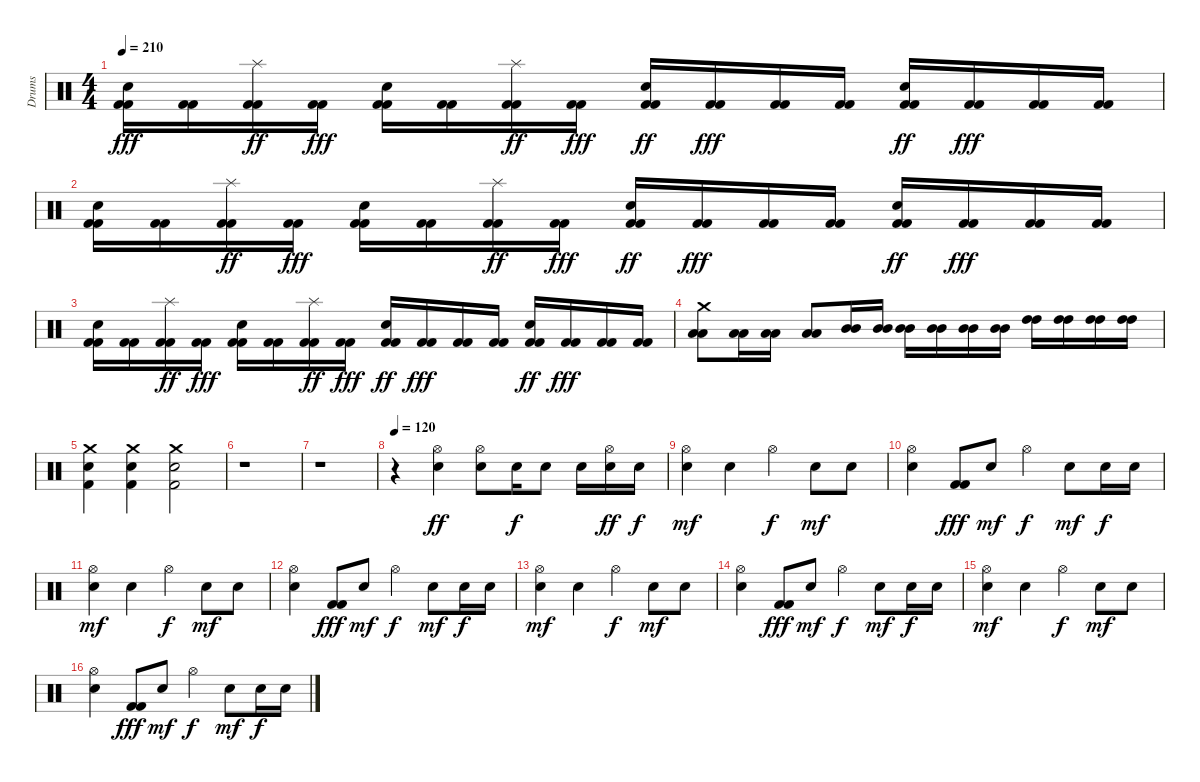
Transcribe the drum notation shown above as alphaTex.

\track ("Drums" "Drums") {instrument percussion}
\staff {score}
\articulation defaults
\ts (4 4)
\tempo 210
\clef neutral
\ks c
("Electric Snare (hit)" "Kick (hit) 2" "Kick (hit) 2").16{dy fff} ("Kick (hit) 2" "Kick (hit) 2").16 ("Splash (hit)" "Kick (hit) 2" "Kick (hit) 2").16{dy ff} ("Kick (hit) 2" "Kick (hit) 2").16{dy fff} ("Electric Snare (hit)" "Kick (hit) 2" "Kick (hit) 2").16 ("Kick (hit) 2" "Kick (hit) 2").16 ("Splash (hit)" "Kick (hit) 2" "Kick (hit) 2").16{dy ff} ("Kick (hit) 2" "Kick (hit) 2").16{dy fff} ("Snare (hit) 2" "Kick (hit) 2" "Kick (hit) 2").16{dy ff} ("Kick (hit) 2" "Kick (hit) 2").16{dy fff} ("Kick (hit) 2" "Kick (hit) 2").16 ("Kick (hit) 2" "Kick (hit) 2").16 ("Snare (hit) 2" "Kick (hit) 2" "Kick (hit) 2").16{dy ff} ("Kick (hit) 2" "Kick (hit) 2").16{dy fff} ("Kick (hit) 2" "Kick (hit) 2").16 ("Kick (hit) 2" "Kick (hit) 2").16 |
("Electric Snare (hit)" "Kick (hit) 2" "Kick (hit) 2").16 ("Kick (hit) 2" "Kick (hit) 2").16 ("Splash (hit)" "Kick (hit) 2" "Kick (hit) 2").16{dy ff} ("Kick (hit) 2" "Kick (hit) 2").16{dy fff} ("Electric Snare (hit)" "Kick (hit) 2" "Kick (hit) 2").16 ("Kick (hit) 2" "Kick (hit) 2").16 ("Splash (hit)" "Kick (hit) 2" "Kick (hit) 2").16{dy ff} ("Kick (hit) 2" "Kick (hit) 2").16{dy fff} ("Snare (hit) 2" "Kick (hit) 2" "Kick (hit) 2").16{dy ff} ("Kick (hit) 2" "Kick (hit) 2").16{dy fff} ("Kick (hit) 2" "Kick (hit) 2").16 ("Kick (hit) 2" "Kick (hit) 2").16 ("Snare (hit) 2" "Kick (hit) 2" "Kick (hit) 2").16{dy ff} ("Kick (hit) 2" "Kick (hit) 2").16{dy fff} ("Kick (hit) 2" "Kick (hit) 2").16 ("Kick (hit) 2" "Kick (hit) 2").16 |
("Electric Snare (hit)" "Kick (hit) 2" "Kick (hit) 2").16 ("Kick (hit) 2" "Kick (hit) 2").16 ("Splash (hit)" "Kick (hit) 2" "Kick (hit) 2").16{dy ff} ("Kick (hit) 2" "Kick (hit) 2").16{dy fff} ("Electric Snare (hit)" "Kick (hit) 2" "Kick (hit) 2").16 ("Kick (hit) 2" "Kick (hit) 2").16 ("Splash (hit)" "Kick (hit) 2" "Kick (hit) 2").16{dy ff} ("Kick (hit) 2" "Kick (hit) 2").16{dy fff} ("Snare (hit) 2" "Kick (hit) 2" "Kick (hit) 2").16{dy ff} ("Kick (hit) 2" "Kick (hit) 2").16{dy fff} ("Kick (hit) 2" "Kick (hit) 2").16 ("Kick (hit) 2" "Kick (hit) 2").16 ("Snare (hit) 2" "Kick (hit) 2" "Kick (hit) 2").16{dy ff} ("Kick (hit) 2" "Kick (hit) 2").16{dy fff} ("Kick (hit) 2" "Kick (hit) 2").16 ("Kick (hit) 2" "Kick (hit) 2").16 |
("Low Tom (hit)" "Low Tom (hit)" "Crash medium (hit)").8 ("Low Tom (hit)" "Low Tom (hit)").16 ("Low Tom (hit)" "Low Tom (hit)").16 ("Low Tom (hit)" "Low Tom (hit)").8 ("Mid Tom (hit)" "Mid Tom (hit)").16 ("Mid Tom (hit)" "Mid Tom (hit)").16 ("Mid Tom (hit)" "Mid Tom (hit)").16 ("Mid Tom (hit)" "Mid Tom (hit)").16 ("Mid Tom (hit)" "Mid Tom (hit)").16 ("Mid Tom (hit)" "Mid Tom (hit)").16 ("High Tom (hit)" "High Tom (hit)").16 ("High Tom (hit)" "High Tom (hit)").16 ("High Tom (hit)" "High Tom (hit)").16 ("High Tom (hit)" "High Tom (hit)").16 |
("Electric Snare (hit)" "Crash medium (hit)" "Kick (hit) 2").4 ("Electric Snare (hit)" "Crash medium (hit)" "Kick (hit) 2").4 ("Electric Snare (hit)" "Crash medium (hit)" "Kick (hit) 2").2 |
r.1 |
r.1 |
\tempo 120
r.4 ("Electric Snare (hit)" "Hi-Hat (open)").4{dy ff} ("Electric Snare (hit)" "Hi-Hat (open)").8 "Electric Snare (hit)".16{dy f} "Electric Snare (hit)".8 "Electric Snare (hit)".16 ("Electric Snare (hit)" "Hi-Hat (open)").16{dy ff} "Electric Snare (hit)".16{dy f} |
("Electric Snare (hit)" "Hi-Hat (open)").4{dy mf} "Electric Snare (hit)".4 "Hi-Hat (open)".4{dy f} "Electric Snare (hit)".8{dy mf} "Electric Snare (hit)".8 |
("Electric Snare (hit)" "Hi-Hat (open)").4 ("Kick (hit) 2" "Kick (hit) 2").8{dy fff} "Electric Snare (hit)".8{dy mf} "Hi-Hat (open)".4{dy f} "Electric Snare (hit)".8{dy mf} "Electric Snare (hit)".16{dy f} "Electric Snare (hit)".16 |
("Electric Snare (hit)" "Hi-Hat (open)").4{dy mf} "Electric Snare (hit)".4 "Hi-Hat (open)".4{dy f} "Electric Snare (hit)".8{dy mf} "Electric Snare (hit)".8 |
("Electric Snare (hit)" "Hi-Hat (open)").4 ("Kick (hit) 2" "Kick (hit) 2").8{dy fff} "Electric Snare (hit)".8{dy mf} "Hi-Hat (open)".4{dy f} "Electric Snare (hit)".8{dy mf} "Electric Snare (hit)".16{dy f} "Electric Snare (hit)".16 |
("Electric Snare (hit)" "Hi-Hat (open)").4{dy mf} "Electric Snare (hit)".4 "Hi-Hat (open)".4{dy f} "Electric Snare (hit)".8{dy mf} "Electric Snare (hit)".8 |
("Electric Snare (hit)" "Hi-Hat (open)").4 ("Kick (hit) 2" "Kick (hit) 2").8{dy fff} "Electric Snare (hit)".8{dy mf} "Hi-Hat (open)".4{dy f} "Electric Snare (hit)".8{dy mf} "Electric Snare (hit)".16{dy f} "Electric Snare (hit)".16 |
("Electric Snare (hit)" "Hi-Hat (open)").4{dy mf} "Electric Snare (hit)".4 "Hi-Hat (open)".4{dy f} "Electric Snare (hit)".8{dy mf} "Electric Snare (hit)".8 |
("Electric Snare (hit)" "Hi-Hat (open)").4 ("Kick (hit) 2" "Kick (hit) 2").8{dy fff} "Electric Snare (hit)".8{dy mf} "Hi-Hat (open)".4{dy f} "Electric Snare (hit)".8{dy mf} "Electric Snare (hit)".16{dy f} "Electric Snare (hit)".16
